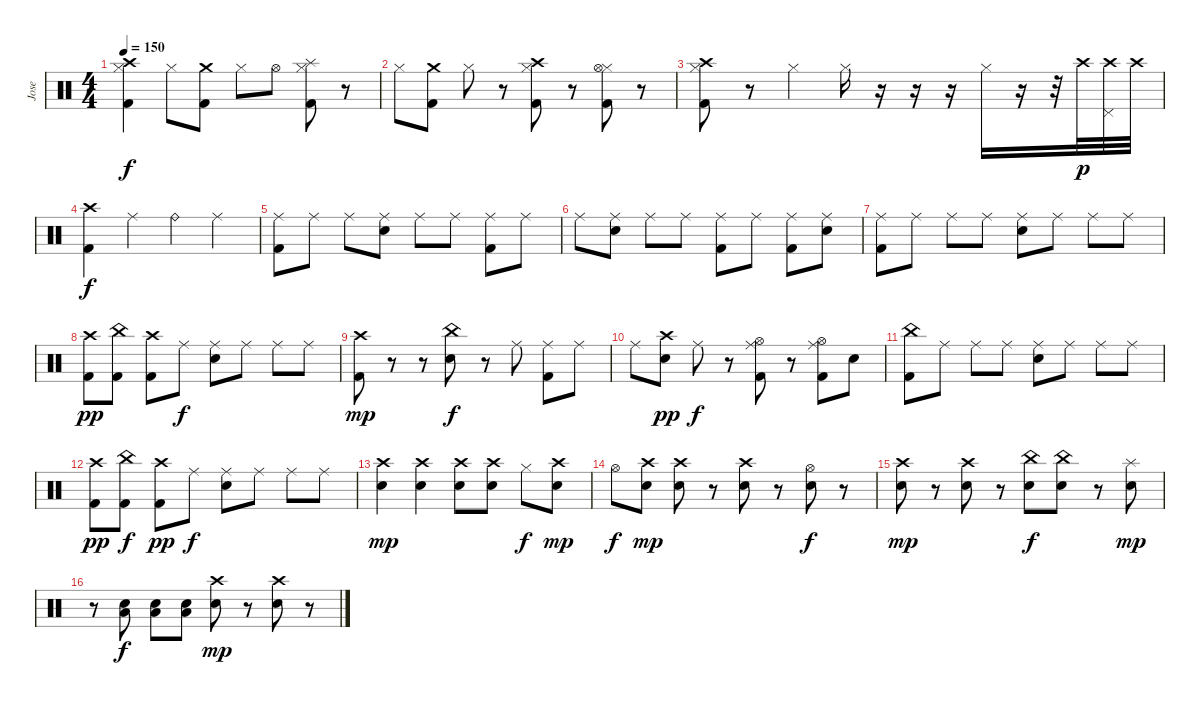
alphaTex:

\track ("Jose" "Jose") {instrument percussion}
\staff {score}
\articulation defaults
\ts (4 4)
\tempo 150
\clef neutral
\ks c
("Crash high (hit)" "Hi-Hat (closed)" "Kick (hit) 2").4{dy f} "Hi-Hat (closed)".8 ("Crash medium (hit)" "Kick (hit) 2").8 "Hi-Hat (closed)".8 "Hi-Hat (open)".8 ("Hi-Hat (closed)" "Splash (hit)" "Kick (hit) 2").8 r.8 |
"Hi-Hat (closed)".8 ("Crash medium (hit)" "Kick (hit) 2").8 "Hi-Hat (closed)".8 r.8 ("Hi-Hat (closed)" "Crash high (hit)" "Kick (hit) 2").8 r.8 ("Hi-Hat (closed)" "Hi-Hat (open)" "Kick (hit) 2").8 r.8 |
("Hi-Hat (closed)" "Crash high (hit)" "Kick (hit) 2").8 r.8 "Hi-Hat (closed)".4 "Hi-Hat (closed)".16 r.16 r.16 r.16 "Hi-Hat (closed)".16 r.16 r.32 "Crash high (hit)".32{dy p} ("Crash high (hit)" "Pedal Hi-Hat (hit)").32 "Crash high (hit)".32 |
("Crash high (hit)" "Kick (hit) 2").4{dy f} "Ride (middle)".4 "Ride (bell)".4 "Ride (middle)".4 |
("Ride (middle)" "Kick (hit) 2").8 "Ride (middle)".8 "Ride (middle)".8 ("Ride (middle)" "Electric Snare (hit)").8 "Ride (middle)".8 "Ride (middle)".8 ("Ride (middle)" "Kick (hit) 2").8 "Ride (middle)".8 |
"Ride (middle)".8 ("Ride (middle)" "Electric Snare (hit)").8 "Ride (middle)".8 "Ride (middle)".8 ("Ride (middle)" "Kick (hit) 2").8 "Ride (middle)".8 ("Ride (middle)" "Kick (hit) 2").8 ("Ride (middle)" "Electric Snare (hit)").8 |
("Ride (middle)" "Kick (hit) 2").8 "Ride (middle)".8 "Ride (middle)".8 "Ride (middle)".8 ("Ride (middle)" "Electric Snare (hit)").8 "Ride (middle)".8 "Ride (middle)".8 "Ride (middle)".8 |
("Crash high (hit)" "Kick (hit) 2").8{dy pp} ("China (hit)" "Kick (hit) 2").8 ("Crash high (hit)" "Kick (hit) 2").8 "Ride (middle)".8{dy f} ("Ride (middle)" "Electric Snare (hit)").8 "Ride (middle)".8 "Ride (middle)".8 "Ride (middle)".8 |
("Crash high (hit)" "Kick (hit) 2").8{dy mp} r.8 r.8 ("China (hit)" "Electric Snare (hit)").8{dy f} r.8 "Ride (middle)".8 ("Ride (middle)" "Kick (hit) 2").8 "Ride (middle)".8 |
"Ride (middle)".8 ("Crash high (hit)" "Electric Snare (hit)").8{dy pp} "Ride (middle)".8{dy f} r.8 ("Ride (middle)" "Hi-Hat (open)" "Kick (hit) 2").8 r.8 ("Ride (middle)" "Hi-Hat (open)" "Kick (hit) 2").8 "Electric Snare (hit)".8 |
("China (hit)" "Kick (hit) 2").8 "Ride (middle)".8 "Ride (middle)".8 "Ride (middle)".8 ("Ride (middle)" "Electric Snare (hit)").8 "Ride (middle)".8 "Ride (middle)".8 "Ride (middle)".8 |
("Crash high (hit)" "Kick (hit) 2").8{dy pp} ("China (hit)" "Kick (hit) 2").8{dy f} ("Crash high (hit)" "Kick (hit) 2").8{dy pp} "Ride (middle)".8{dy f} ("Ride (middle)" "Electric Snare (hit)").8 "Ride (middle)".8 "Ride (middle)".8 "Ride (middle)".8 |
("Crash high (hit)" "Electric Snare (hit)").4{dy mp} ("Crash high (hit)" "Electric Snare (hit)").4 ("Crash high (hit)" "Electric Snare (hit)").8 ("Crash high (hit)" "Electric Snare (hit)").8 "Hi-Hat (closed)".8{dy f} ("Crash high (hit)" "Electric Snare (hit)").8{dy mp} |
"Hi-Hat (open)".8{dy f} ("Crash high (hit)" "Electric Snare (hit)").8{dy mp} ("Crash high (hit)" "Electric Snare (hit)").8 r.8 ("Crash high (hit)" "Electric Snare (hit)").8 r.8 ("Hi-Hat (open)" "Electric Snare (hit)").8{dy f} r.8 |
("Crash high (hit)" "Electric Snare (hit)").8{dy mp} r.8 ("Crash high (hit)" "Electric Snare (hit)").8 r.8 ("China (hit)" "Electric Snare (hit)").8{dy f} ("China (hit)" "Electric Snare (hit)").8 r.8 ("Splash (hit)" "Electric Snare (hit)").8{dy mp} |
r.8 ("Electric Snare (hit)" "Low Floor Tom (hit)").8{dy f} ("Electric Snare (hit)" "Low Floor Tom (hit)").8 ("Electric Snare (hit)" "Low Floor Tom (hit)").8 ("Crash high (hit)" "Electric Snare (hit)").8{dy mp} r.8 ("Crash high (hit)" "Electric Snare (hit)").8 r.8
